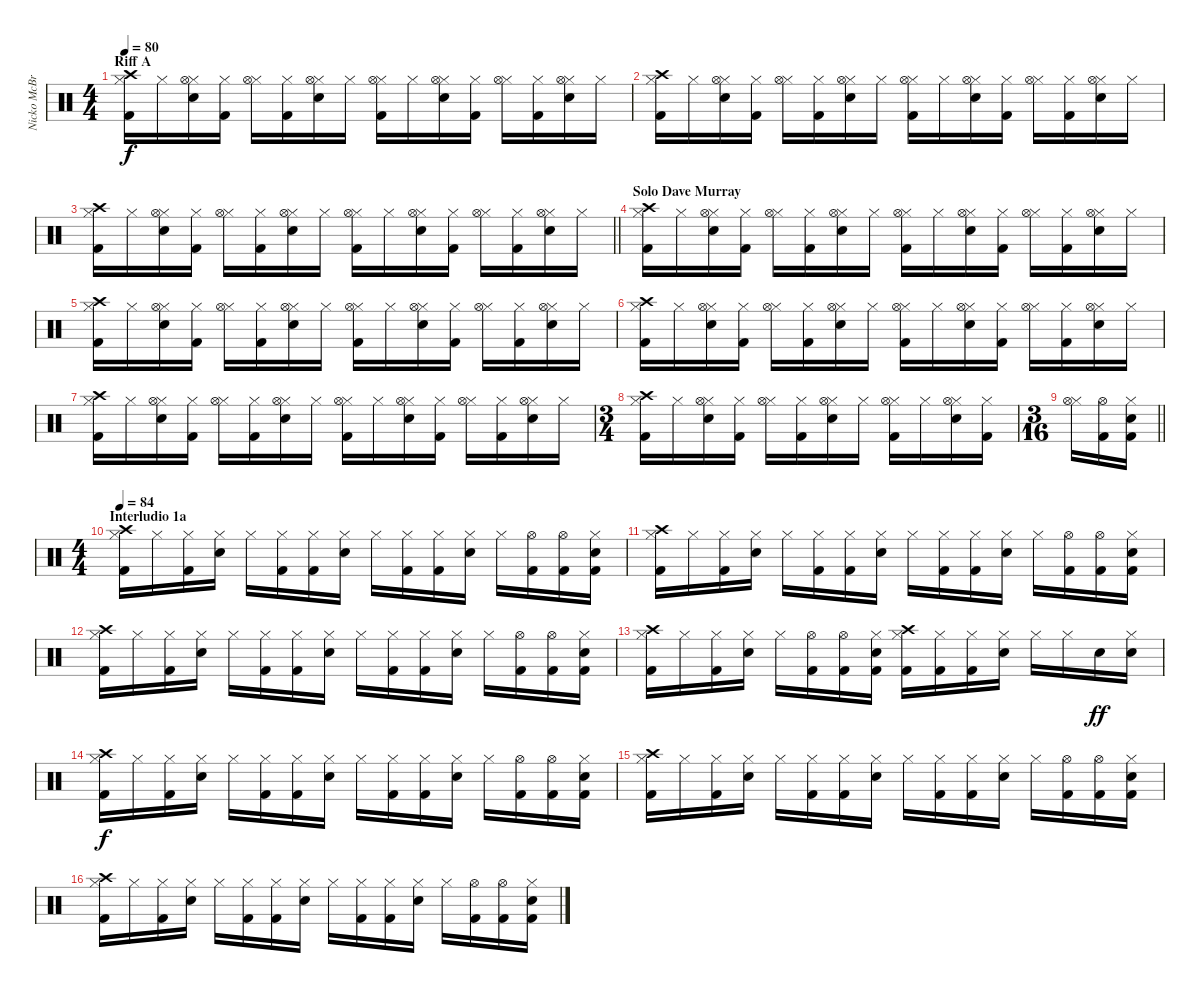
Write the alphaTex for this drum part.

\track ("Nicko McBrain" "Nicko McBr") {instrument percussion}
\staff {score}
\articulation defaults
\ts (4 4)
\section ("" "Riff A")
\tempo 80
\clef neutral
\ks c
("Kick (hit) 2" "Hi-Hat (closed)" "Crash high (hit)").16{dy f} "Hi-Hat (closed)".16 ("Snare (hit) 2" "Hi-Hat (closed)" "Hi-Hat (open)").16 ("Kick (hit) 2" "Hi-Hat (closed)").16 ("Hi-Hat (closed)" "Hi-Hat (open)").16 ("Kick (hit) 2" "Hi-Hat (closed)").16 ("Snare (hit) 2" "Hi-Hat (closed)" "Hi-Hat (open)").16 "Hi-Hat (closed)".16 ("Kick (hit) 2" "Hi-Hat (closed)" "Hi-Hat (open)").16 "Hi-Hat (closed)".16 ("Snare (hit) 2" "Hi-Hat (closed)" "Hi-Hat (open)").16 ("Kick (hit) 2" "Hi-Hat (closed)").16 ("Hi-Hat (closed)" "Hi-Hat (open)").16 ("Kick (hit) 2" "Hi-Hat (closed)").16 ("Snare (hit) 2" "Hi-Hat (closed)" "Hi-Hat (open)").16 "Hi-Hat (closed)".16 |
("Kick (hit) 2" "Hi-Hat (closed)" "Crash high (hit)").16 "Hi-Hat (closed)".16 ("Snare (hit) 2" "Hi-Hat (closed)" "Hi-Hat (open)").16 ("Kick (hit) 2" "Hi-Hat (closed)").16 ("Hi-Hat (closed)" "Hi-Hat (open)").16 ("Kick (hit) 2" "Hi-Hat (closed)").16 ("Snare (hit) 2" "Hi-Hat (closed)" "Hi-Hat (open)").16 "Hi-Hat (closed)".16 ("Kick (hit) 2" "Hi-Hat (closed)" "Hi-Hat (open)").16 "Hi-Hat (closed)".16 ("Snare (hit) 2" "Hi-Hat (closed)" "Hi-Hat (open)").16 ("Kick (hit) 2" "Hi-Hat (closed)").16 ("Hi-Hat (closed)" "Hi-Hat (open)").16 ("Kick (hit) 2" "Hi-Hat (closed)").16 ("Snare (hit) 2" "Hi-Hat (closed)" "Hi-Hat (open)").16 "Hi-Hat (closed)".16 |
\barLineRight lightlight
("Kick (hit) 2" "Hi-Hat (closed)" "Crash high (hit)").16 "Hi-Hat (closed)".16 ("Snare (hit) 2" "Hi-Hat (closed)" "Hi-Hat (open)").16 ("Kick (hit) 2" "Hi-Hat (closed)").16 ("Hi-Hat (closed)" "Hi-Hat (open)").16 ("Kick (hit) 2" "Hi-Hat (closed)").16 ("Snare (hit) 2" "Hi-Hat (closed)" "Hi-Hat (open)").16 "Hi-Hat (closed)".16 ("Kick (hit) 2" "Hi-Hat (closed)" "Hi-Hat (open)").16 "Hi-Hat (closed)".16 ("Snare (hit) 2" "Hi-Hat (closed)" "Hi-Hat (open)").16 ("Kick (hit) 2" "Hi-Hat (closed)").16 ("Hi-Hat (closed)" "Hi-Hat (open)").16 ("Kick (hit) 2" "Hi-Hat (closed)").16 ("Snare (hit) 2" "Hi-Hat (closed)" "Hi-Hat (open)").16 "Hi-Hat (closed)".16 |
\section ("" "Solo Dave Murray")
("Kick (hit) 2" "Hi-Hat (closed)" "Crash high (hit)").16 "Hi-Hat (closed)".16 ("Snare (hit) 2" "Hi-Hat (closed)" "Hi-Hat (open)").16 ("Kick (hit) 2" "Hi-Hat (closed)").16 ("Hi-Hat (closed)" "Hi-Hat (open)").16 ("Kick (hit) 2" "Hi-Hat (closed)").16 ("Snare (hit) 2" "Hi-Hat (closed)" "Hi-Hat (open)").16 "Hi-Hat (closed)".16 ("Kick (hit) 2" "Hi-Hat (closed)" "Hi-Hat (open)").16 "Hi-Hat (closed)".16 ("Snare (hit) 2" "Hi-Hat (closed)" "Hi-Hat (open)").16 ("Kick (hit) 2" "Hi-Hat (closed)").16 ("Hi-Hat (closed)" "Hi-Hat (open)").16 ("Kick (hit) 2" "Hi-Hat (closed)").16 ("Snare (hit) 2" "Hi-Hat (closed)" "Hi-Hat (open)").16 "Hi-Hat (closed)".16 |
("Kick (hit) 2" "Hi-Hat (closed)" "Crash high (hit)").16 "Hi-Hat (closed)".16 ("Snare (hit) 2" "Hi-Hat (closed)" "Hi-Hat (open)").16 ("Kick (hit) 2" "Hi-Hat (closed)").16 ("Hi-Hat (closed)" "Hi-Hat (open)").16 ("Kick (hit) 2" "Hi-Hat (closed)").16 ("Snare (hit) 2" "Hi-Hat (closed)" "Hi-Hat (open)").16 "Hi-Hat (closed)".16 ("Kick (hit) 2" "Hi-Hat (closed)" "Hi-Hat (open)").16 "Hi-Hat (closed)".16 ("Snare (hit) 2" "Hi-Hat (closed)" "Hi-Hat (open)").16 ("Kick (hit) 2" "Hi-Hat (closed)").16 ("Hi-Hat (closed)" "Hi-Hat (open)").16 ("Kick (hit) 2" "Hi-Hat (closed)").16 ("Snare (hit) 2" "Hi-Hat (closed)" "Hi-Hat (open)").16 "Hi-Hat (closed)".16 |
("Kick (hit) 2" "Hi-Hat (closed)" "Crash high (hit)").16 "Hi-Hat (closed)".16 ("Snare (hit) 2" "Hi-Hat (closed)" "Hi-Hat (open)").16 ("Kick (hit) 2" "Hi-Hat (closed)").16 ("Hi-Hat (closed)" "Hi-Hat (open)").16 ("Kick (hit) 2" "Hi-Hat (closed)").16 ("Snare (hit) 2" "Hi-Hat (closed)" "Hi-Hat (open)").16 "Hi-Hat (closed)".16 ("Kick (hit) 2" "Hi-Hat (closed)" "Hi-Hat (open)").16 "Hi-Hat (closed)".16 ("Snare (hit) 2" "Hi-Hat (closed)" "Hi-Hat (open)").16 ("Kick (hit) 2" "Hi-Hat (closed)").16 ("Hi-Hat (closed)" "Hi-Hat (open)").16 ("Kick (hit) 2" "Hi-Hat (closed)").16 ("Snare (hit) 2" "Hi-Hat (closed)" "Hi-Hat (open)").16 "Hi-Hat (closed)".16 |
("Kick (hit) 2" "Hi-Hat (closed)" "Crash high (hit)").16 "Hi-Hat (closed)".16 ("Snare (hit) 2" "Hi-Hat (closed)" "Hi-Hat (open)").16 ("Kick (hit) 2" "Hi-Hat (closed)").16 ("Hi-Hat (closed)" "Hi-Hat (open)").16 ("Kick (hit) 2" "Hi-Hat (closed)").16 ("Snare (hit) 2" "Hi-Hat (closed)" "Hi-Hat (open)").16 "Hi-Hat (closed)".16 ("Kick (hit) 2" "Hi-Hat (closed)" "Hi-Hat (open)").16 "Hi-Hat (closed)".16 ("Snare (hit) 2" "Hi-Hat (closed)" "Hi-Hat (open)").16 ("Kick (hit) 2" "Hi-Hat (closed)").16 ("Hi-Hat (closed)" "Hi-Hat (open)").16 ("Kick (hit) 2" "Hi-Hat (closed)").16 ("Snare (hit) 2" "Hi-Hat (closed)" "Hi-Hat (open)").16 "Hi-Hat (closed)".16 |
\ts (3 4)
("Kick (hit) 2" "Hi-Hat (closed)" "Crash high (hit)").16 "Hi-Hat (closed)".16 ("Snare (hit) 2" "Hi-Hat (closed)" "Hi-Hat (open)").16 ("Kick (hit) 2" "Hi-Hat (closed)").16 ("Hi-Hat (closed)" "Hi-Hat (open)").16 ("Kick (hit) 2" "Hi-Hat (closed)").16 ("Snare (hit) 2" "Hi-Hat (closed)" "Hi-Hat (open)").16 "Hi-Hat (closed)".16 ("Kick (hit) 2" "Hi-Hat (closed)" "Hi-Hat (open)").16 "Hi-Hat (closed)".16 ("Snare (hit) 2" "Hi-Hat (closed)" "Hi-Hat (open)").16 ("Kick (hit) 2" "Hi-Hat (closed)").16 |
\ts (3 16)
\barLineRight lightlight
("Hi-Hat (closed)" "Hi-Hat (open)").16 ("Kick (hit) 2" "Hi-Hat (open)").16 ("Snare (hit) 2" "Hi-Hat (closed)" "Kick (hit) 2").16 |
\ts (4 4)
\section ("" "Interludio 1a")
\tempo 84
("Kick (hit) 2" "Hi-Hat (closed)" "Crash high (hit)").16 "Hi-Hat (closed)".16 ("Kick (hit) 2" "Hi-Hat (closed)").16 ("Snare (hit) 2" "Hi-Hat (closed)").16 "Hi-Hat (closed)".16 ("Kick (hit) 2" "Hi-Hat (closed)").16 ("Kick (hit) 2" "Hi-Hat (closed)").16 ("Snare (hit) 2" "Hi-Hat (closed)").16 "Hi-Hat (closed)".16 ("Kick (hit) 2" "Hi-Hat (closed)").16 ("Kick (hit) 2" "Hi-Hat (closed)").16 ("Snare (hit) 2" "Hi-Hat (closed)").16 "Hi-Hat (closed)".16 ("Kick (hit) 2" "Hi-Hat (open)").16 ("Kick (hit) 2" "Hi-Hat (open)").16 ("Snare (hit) 2" "Hi-Hat (closed)" "Kick (hit) 2").16 |
("Kick (hit) 2" "Hi-Hat (closed)" "Crash high (hit)").16 "Hi-Hat (closed)".16 ("Kick (hit) 2" "Hi-Hat (closed)").16 ("Snare (hit) 2" "Hi-Hat (closed)").16 "Hi-Hat (closed)".16 ("Kick (hit) 2" "Hi-Hat (closed)").16 ("Kick (hit) 2" "Hi-Hat (closed)").16 ("Snare (hit) 2" "Hi-Hat (closed)").16 "Hi-Hat (closed)".16 ("Kick (hit) 2" "Hi-Hat (closed)").16 ("Kick (hit) 2" "Hi-Hat (closed)").16 ("Snare (hit) 2" "Hi-Hat (closed)").16 "Hi-Hat (closed)".16 ("Kick (hit) 2" "Hi-Hat (open)").16 ("Kick (hit) 2" "Hi-Hat (open)").16 ("Snare (hit) 2" "Hi-Hat (closed)" "Kick (hit) 2").16 |
("Kick (hit) 2" "Hi-Hat (closed)" "Crash high (hit)").16 "Hi-Hat (closed)".16 ("Kick (hit) 2" "Hi-Hat (closed)").16 ("Snare (hit) 2" "Hi-Hat (closed)").16 "Hi-Hat (closed)".16 ("Kick (hit) 2" "Hi-Hat (closed)").16 ("Kick (hit) 2" "Hi-Hat (closed)").16 ("Snare (hit) 2" "Hi-Hat (closed)").16 "Hi-Hat (closed)".16 ("Kick (hit) 2" "Hi-Hat (closed)").16 ("Kick (hit) 2" "Hi-Hat (closed)").16 ("Snare (hit) 2" "Hi-Hat (closed)").16 "Hi-Hat (closed)".16 ("Kick (hit) 2" "Hi-Hat (open)").16 ("Kick (hit) 2" "Hi-Hat (open)").16 ("Snare (hit) 2" "Hi-Hat (closed)" "Kick (hit) 2").16 |
("Kick (hit) 2" "Hi-Hat (closed)" "Crash high (hit)").16 "Hi-Hat (closed)".16 ("Kick (hit) 2" "Hi-Hat (closed)").16 ("Snare (hit) 2" "Hi-Hat (closed)").16 "Hi-Hat (closed)".16 ("Kick (hit) 2" "Hi-Hat (open)").16 ("Kick (hit) 2" "Hi-Hat (open)").16 ("Snare (hit) 2" "Hi-Hat (closed)" "Kick (hit) 2").16 ("Kick (hit) 2" "Hi-Hat (closed)" "Crash high (hit)").16 ("Kick (hit) 2" "Hi-Hat (closed)").16 ("Kick (hit) 2" "Hi-Hat (closed)").16 ("Snare (hit) 2" "Hi-Hat (closed)").16 "Hi-Hat (closed)".16 "Hi-Hat (closed)".16 "Snare (hit) 2".16{dy ff} ("Snare (hit) 2" "Hi-Hat (closed)").16 |
("Kick (hit) 2" "Hi-Hat (closed)" "Crash high (hit)").16{dy f} "Hi-Hat (closed)".16 ("Kick (hit) 2" "Hi-Hat (closed)").16 ("Snare (hit) 2" "Hi-Hat (closed)").16 "Hi-Hat (closed)".16 ("Kick (hit) 2" "Hi-Hat (closed)").16 ("Kick (hit) 2" "Hi-Hat (closed)").16 ("Snare (hit) 2" "Hi-Hat (closed)").16 "Hi-Hat (closed)".16 ("Kick (hit) 2" "Hi-Hat (closed)").16 ("Kick (hit) 2" "Hi-Hat (closed)").16 ("Snare (hit) 2" "Hi-Hat (closed)").16 "Hi-Hat (closed)".16 ("Kick (hit) 2" "Hi-Hat (open)").16 ("Kick (hit) 2" "Hi-Hat (open)").16 ("Snare (hit) 2" "Hi-Hat (closed)" "Kick (hit) 2").16 |
("Kick (hit) 2" "Hi-Hat (closed)" "Crash high (hit)").16 "Hi-Hat (closed)".16 ("Kick (hit) 2" "Hi-Hat (closed)").16 ("Snare (hit) 2" "Hi-Hat (closed)").16 "Hi-Hat (closed)".16 ("Kick (hit) 2" "Hi-Hat (closed)").16 ("Kick (hit) 2" "Hi-Hat (closed)").16 ("Snare (hit) 2" "Hi-Hat (closed)").16 "Hi-Hat (closed)".16 ("Kick (hit) 2" "Hi-Hat (closed)").16 ("Kick (hit) 2" "Hi-Hat (closed)").16 ("Snare (hit) 2" "Hi-Hat (closed)").16 "Hi-Hat (closed)".16 ("Kick (hit) 2" "Hi-Hat (open)").16 ("Kick (hit) 2" "Hi-Hat (open)").16 ("Snare (hit) 2" "Hi-Hat (closed)" "Kick (hit) 2").16 |
("Kick (hit) 2" "Hi-Hat (closed)" "Crash high (hit)").16 "Hi-Hat (closed)".16 ("Kick (hit) 2" "Hi-Hat (closed)").16 ("Snare (hit) 2" "Hi-Hat (closed)").16 "Hi-Hat (closed)".16 ("Kick (hit) 2" "Hi-Hat (closed)").16 ("Kick (hit) 2" "Hi-Hat (closed)").16 ("Snare (hit) 2" "Hi-Hat (closed)").16 "Hi-Hat (closed)".16 ("Kick (hit) 2" "Hi-Hat (closed)").16 ("Kick (hit) 2" "Hi-Hat (closed)").16 ("Snare (hit) 2" "Hi-Hat (closed)").16 "Hi-Hat (closed)".16 ("Kick (hit) 2" "Hi-Hat (open)").16 ("Kick (hit) 2" "Hi-Hat (open)").16 ("Snare (hit) 2" "Hi-Hat (closed)" "Kick (hit) 2").16
